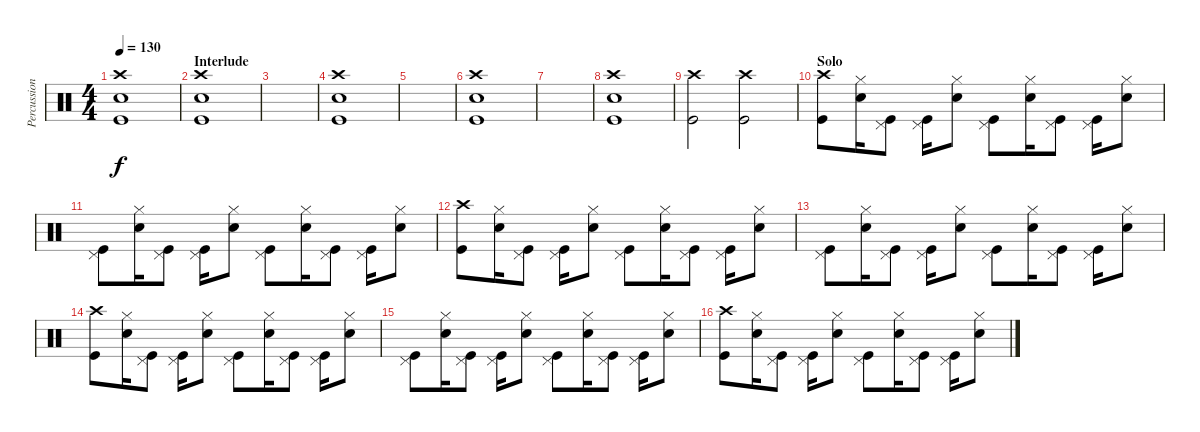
\track ("Percussion" "Percussion") {instrument percussion}
\staff {score}
\articulation defaults
\ts (4 4)
\tempo 130
\clef neutral
\ks c
("Crash high (hit)" "Snare (hit) 2" "Kick (hit)").1{dy f} |
\section ("" "Interlude")
("Crash high (hit)" "Kick (hit)" "Snare (hit) 2").1 |
|
("Crash high (hit)" "Kick (hit)" "Snare (hit) 2").1 |
|
("Crash high (hit)" "Kick (hit)" "Snare (hit) 2").1 |
|
("Crash high (hit)" "Kick (hit)" "Snare (hit) 2").1 |
("Crash high (hit)" "Kick (hit)").2 ("Crash high (hit)" "Kick (hit)").2 |
\section ("" "Solo")
("Crash high (hit)" "Kick (hit)").8 ("Hi-Hat (closed)" "Snare (hit) 2").16 ("Pedal Hi-Hat (hit)" "Kick (hit)").8 ("Pedal Hi-Hat (hit)" "Kick (hit)").16 ("Hi-Hat (closed)" "Snare (hit) 2").8 ("Pedal Hi-Hat (hit)" "Kick (hit)").8 ("Hi-Hat (closed)" "Snare (hit) 2").16 ("Pedal Hi-Hat (hit)" "Kick (hit)").8 ("Pedal Hi-Hat (hit)" "Kick (hit)").16 ("Hi-Hat (closed)" "Snare (hit) 2").8 |
("Pedal Hi-Hat (hit)" "Kick (hit)").8 ("Hi-Hat (closed)" "Snare (hit) 2").16 ("Pedal Hi-Hat (hit)" "Kick (hit)").8 ("Pedal Hi-Hat (hit)" "Kick (hit)").16 ("Hi-Hat (closed)" "Snare (hit) 2").8 ("Pedal Hi-Hat (hit)" "Kick (hit)").8 ("Hi-Hat (closed)" "Snare (hit) 2").16 ("Pedal Hi-Hat (hit)" "Kick (hit)").8 ("Pedal Hi-Hat (hit)" "Kick (hit)").16 ("Hi-Hat (closed)" "Snare (hit) 2").8 |
("Crash high (hit)" "Kick (hit)").8 ("Hi-Hat (closed)" "Snare (hit) 2").16 ("Pedal Hi-Hat (hit)" "Kick (hit)").8 ("Pedal Hi-Hat (hit)" "Kick (hit)").16 ("Hi-Hat (closed)" "Snare (hit) 2").8 ("Pedal Hi-Hat (hit)" "Kick (hit)").8 ("Hi-Hat (closed)" "Snare (hit) 2").16 ("Pedal Hi-Hat (hit)" "Kick (hit)").8 ("Pedal Hi-Hat (hit)" "Kick (hit)").16 ("Hi-Hat (closed)" "Snare (hit) 2").8 |
("Pedal Hi-Hat (hit)" "Kick (hit)").8 ("Hi-Hat (closed)" "Snare (hit) 2").16 ("Pedal Hi-Hat (hit)" "Kick (hit)").8 ("Pedal Hi-Hat (hit)" "Kick (hit)").16 ("Hi-Hat (closed)" "Snare (hit) 2").8 ("Pedal Hi-Hat (hit)" "Kick (hit)").8 ("Hi-Hat (closed)" "Snare (hit) 2").16 ("Pedal Hi-Hat (hit)" "Kick (hit)").8 ("Pedal Hi-Hat (hit)" "Kick (hit)").16 ("Hi-Hat (closed)" "Snare (hit) 2").8 |
("Crash high (hit)" "Kick (hit)").8 ("Hi-Hat (closed)" "Snare (hit) 2").16 ("Pedal Hi-Hat (hit)" "Kick (hit)").8 ("Pedal Hi-Hat (hit)" "Kick (hit)").16 ("Hi-Hat (closed)" "Snare (hit) 2").8 ("Pedal Hi-Hat (hit)" "Kick (hit)").8 ("Hi-Hat (closed)" "Snare (hit) 2").16 ("Pedal Hi-Hat (hit)" "Kick (hit)").8 ("Pedal Hi-Hat (hit)" "Kick (hit)").16 ("Hi-Hat (closed)" "Snare (hit) 2").8 |
("Pedal Hi-Hat (hit)" "Kick (hit)").8 ("Hi-Hat (closed)" "Snare (hit) 2").16 ("Pedal Hi-Hat (hit)" "Kick (hit)").8 ("Pedal Hi-Hat (hit)" "Kick (hit)").16 ("Hi-Hat (closed)" "Snare (hit) 2").8 ("Pedal Hi-Hat (hit)" "Kick (hit)").8 ("Hi-Hat (closed)" "Snare (hit) 2").16 ("Pedal Hi-Hat (hit)" "Kick (hit)").8 ("Pedal Hi-Hat (hit)" "Kick (hit)").16 ("Hi-Hat (closed)" "Snare (hit) 2").8 |
("Crash high (hit)" "Kick (hit)").8 ("Hi-Hat (closed)" "Snare (hit) 2").16 ("Pedal Hi-Hat (hit)" "Kick (hit)").8 ("Pedal Hi-Hat (hit)" "Kick (hit)").16 ("Hi-Hat (closed)" "Snare (hit) 2").8 ("Pedal Hi-Hat (hit)" "Kick (hit)").8 ("Hi-Hat (closed)" "Snare (hit) 2").16 ("Pedal Hi-Hat (hit)" "Kick (hit)").8 ("Pedal Hi-Hat (hit)" "Kick (hit)").16 ("Hi-Hat (closed)" "Snare (hit) 2").8
